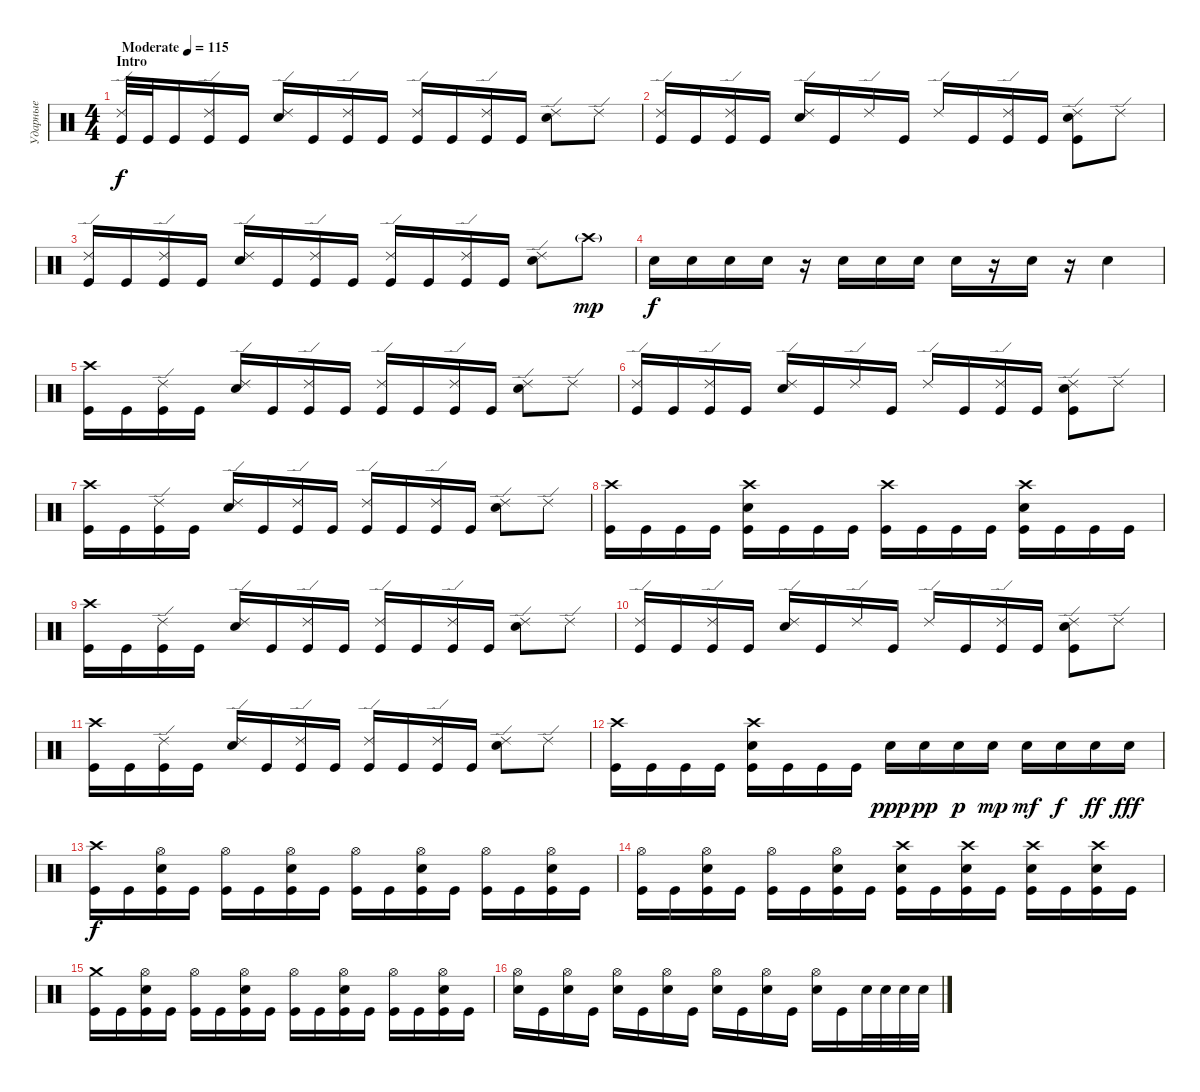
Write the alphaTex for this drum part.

\track ("Ударные" "Ударные") {instrument percussion}
\staff {score}
\articulation defaults
\ts (4 4)
\section ("" "Intro ")
\tempo (115 "Moderate")
\clef neutral
\ks c
("Ride (edge) 2" "Kick (hit)").32{dy f} "Kick (hit)".32 "Kick (hit)".16 ("Ride (edge) 2" "Kick (hit)").16 "Kick (hit)".16 ("Ride (edge) 2" "Snare (hit) 2").16 "Kick (hit)".16 ("Ride (edge) 2" "Kick (hit)").16 "Kick (hit)".16 ("Ride (edge) 2" "Kick (hit)").16 "Kick (hit)".16 ("Ride (edge) 2" "Kick (hit)").16 "Kick (hit)".16 ("Ride (edge) 2" "Snare (hit) 2").8 "Ride (edge) 2".8 |
("Ride (edge) 2" "Kick (hit)").16 "Kick (hit)".16 ("Ride (edge) 2" "Kick (hit)").16 "Kick (hit)".16 ("Ride (edge) 2" "Snare (hit) 2").16 "Kick (hit)".16 "Ride (edge) 2".16 "Kick (hit)".16 "Ride (edge) 2".16 "Kick (hit)".16 ("Ride (edge) 2" "Kick (hit)").16 "Kick (hit)".16 ("Ride (edge) 2" "Snare (hit) 2" "Kick (hit)").8 "Ride (edge) 2".8 |
("Ride (edge) 2" "Kick (hit)").16 "Kick (hit)".16 ("Ride (edge) 2" "Kick (hit)").16 "Kick (hit)".16 ("Ride (edge) 2" "Snare (hit) 2").16 "Kick (hit)".16 ("Ride (edge) 2" "Kick (hit)").16 "Kick (hit)".16 ("Ride (edge) 2" "Kick (hit)").16 "Kick (hit)".16 ("Ride (edge) 2" "Kick (hit)").16 "Kick (hit)".16 ("Ride (edge) 2" "Snare (hit) 2").8 "Crash high (hit)"{g}.8{dy mp} |
"Snare (hit) 2".16{dy f} "Snare (hit) 2".16 "Snare (hit) 2".16 "Snare (hit) 2".16 r.16 "Snare (hit) 2".16 "Snare (hit) 2".16 "Snare (hit) 2".16 "Snare (hit) 2".16 r.16 "Snare (hit) 2".16 r.16 "Snare (hit) 2".4 |
("Crash high (hit)" "Kick (hit)").16 "Kick (hit)".16 ("Ride (edge) 2" "Kick (hit)").16 "Kick (hit)".16 ("Ride (edge) 2" "Snare (hit) 2").16 "Kick (hit)".16 ("Ride (edge) 2" "Kick (hit)").16 "Kick (hit)".16 ("Ride (edge) 2" "Kick (hit)").16 "Kick (hit)".16 ("Ride (edge) 2" "Kick (hit)").16 "Kick (hit)".16 ("Ride (edge) 2" "Snare (hit) 2").8 "Ride (edge) 2".8 |
("Ride (edge) 2" "Kick (hit)").16 "Kick (hit)".16 ("Ride (edge) 2" "Kick (hit)").16 "Kick (hit)".16 ("Ride (edge) 2" "Snare (hit) 2").16 "Kick (hit)".16 "Ride (edge) 2".16 "Kick (hit)".16 "Ride (edge) 2".16 "Kick (hit)".16 ("Ride (edge) 2" "Kick (hit)").16 "Kick (hit)".16 ("Ride (edge) 2" "Snare (hit) 2" "Kick (hit)").8 "Ride (edge) 2".8 |
("Crash high (hit)" "Kick (hit)").16 "Kick (hit)".16 ("Ride (edge) 2" "Kick (hit)").16 "Kick (hit)".16 ("Ride (edge) 2" "Snare (hit) 2").16 "Kick (hit)".16 ("Ride (edge) 2" "Kick (hit)").16 "Kick (hit)".16 ("Ride (edge) 2" "Kick (hit)").16 "Kick (hit)".16 ("Ride (edge) 2" "Kick (hit)").16 "Kick (hit)".16 ("Ride (edge) 2" "Snare (hit) 2").8 "Ride (edge) 2".8 |
("Crash high (hit)" "Kick (hit)").16 "Kick (hit)".16 "Kick (hit)".16 "Kick (hit)".16 ("Crash high (hit)" "Snare (hit) 2" "Kick (hit)").16 "Kick (hit)".16 "Kick (hit)".16 "Kick (hit)".16 ("Crash high (hit)" "Kick (hit)").16 "Kick (hit)".16 "Kick (hit)".16 "Kick (hit)".16 ("Crash high (hit)" "Snare (hit) 2" "Kick (hit)").16 "Kick (hit)".16 "Kick (hit)".16 "Kick (hit)".16 |
("Crash high (hit)" "Kick (hit)").16 "Kick (hit)".16 ("Ride (edge) 2" "Kick (hit)").16 "Kick (hit)".16 ("Ride (edge) 2" "Snare (hit) 2").16 "Kick (hit)".16 ("Ride (edge) 2" "Kick (hit)").16 "Kick (hit)".16 ("Ride (edge) 2" "Kick (hit)").16 "Kick (hit)".16 ("Ride (edge) 2" "Kick (hit)").16 "Kick (hit)".16 ("Ride (edge) 2" "Snare (hit) 2").8 "Ride (edge) 2".8 |
("Ride (edge) 2" "Kick (hit)").16 "Kick (hit)".16 ("Ride (edge) 2" "Kick (hit)").16 "Kick (hit)".16 ("Ride (edge) 2" "Snare (hit) 2").16 "Kick (hit)".16 "Ride (edge) 2".16 "Kick (hit)".16 "Ride (edge) 2".16 "Kick (hit)".16 ("Ride (edge) 2" "Kick (hit)").16 "Kick (hit)".16 ("Ride (edge) 2" "Snare (hit) 2" "Kick (hit)").8 "Ride (edge) 2".8 |
("Crash high (hit)" "Kick (hit)").16 "Kick (hit)".16 ("Ride (edge) 2" "Kick (hit)").16 "Kick (hit)".16 ("Ride (edge) 2" "Snare (hit) 2").16 "Kick (hit)".16 ("Ride (edge) 2" "Kick (hit)").16 "Kick (hit)".16 ("Ride (edge) 2" "Kick (hit)").16 "Kick (hit)".16 ("Ride (edge) 2" "Kick (hit)").16 "Kick (hit)".16 ("Ride (edge) 2" "Snare (hit) 2").8 "Ride (edge) 2".8 |
("Crash high (hit)" "Kick (hit)").16 "Kick (hit)".16 "Kick (hit)".16 "Kick (hit)".16 ("Crash high (hit)" "Snare (hit) 2" "Kick (hit)").16 "Kick (hit)".16 "Kick (hit)".16 "Kick (hit)".16 "Snare (hit) 2".16{dy ppp} "Snare (hit) 2".16{dy pp} "Snare (hit) 2".16{dy p} "Snare (hit) 2".16{dy mp} "Snare (hit) 2".16{dy mf} "Snare (hit) 2".16{dy f} "Snare (hit) 2".16{dy ff} "Snare (hit) 2".16{dy fff} |
("Crash high (hit)" "Kick (hit)").16{dy f} "Kick (hit)".16 ("Hi-Hat (open)" "Snare (hit) 2" "Kick (hit)").16 "Kick (hit)".16 ("Hi-Hat (open)" "Kick (hit)").16 "Kick (hit)".16 ("Hi-Hat (open)" "Snare (hit) 2" "Kick (hit)").16 "Kick (hit)".16 ("Hi-Hat (open)" "Kick (hit)").16 "Kick (hit)".16 ("Hi-Hat (open)" "Snare (hit) 2" "Kick (hit)").16 "Kick (hit)".16 ("Hi-Hat (open)" "Kick (hit)").16 "Kick (hit)".16 ("Hi-Hat (open)" "Snare (hit) 2" "Kick (hit)").16 "Kick (hit)".16 |
("Hi-Hat (open)" "Kick (hit)").16 "Kick (hit)".16 ("Hi-Hat (open)" "Snare (hit) 2" "Kick (hit)").16 "Kick (hit)".16 ("Hi-Hat (open)" "Kick (hit)").16 "Kick (hit)".16 ("Hi-Hat (open)" "Snare (hit) 2" "Kick (hit)").16 "Kick (hit)".16 ("Crash high (hit)" "Snare (hit) 2" "Kick (hit)").16 "Kick (hit)".16 ("Crash high (hit)" "Snare (hit) 2" "Kick (hit)").16 "Kick (hit)".16 ("Crash high (hit)" "Snare (hit) 2" "Kick (hit)").16 "Kick (hit)".16 ("Crash high (hit)" "Snare (hit) 2" "Kick (hit)").16 "Kick (hit)".16 |
("Crash medium (hit)" "Kick (hit)").16 "Kick (hit)".16 ("Hi-Hat (open)" "Snare (hit) 2" "Kick (hit)").16 "Kick (hit)".16 ("Hi-Hat (open)" "Kick (hit)").16 "Kick (hit)".16 ("Hi-Hat (open)" "Snare (hit) 2" "Kick (hit)").16 "Kick (hit)".16 ("Hi-Hat (open)" "Kick (hit)").16 "Kick (hit)".16 ("Hi-Hat (open)" "Snare (hit) 2" "Kick (hit)").16 "Kick (hit)".16 ("Hi-Hat (open)" "Kick (hit)").16 "Kick (hit)".16 ("Hi-Hat (open)" "Snare (hit) 2" "Kick (hit)").16 "Kick (hit)".16 |
("Hi-Hat (open)" "Snare (hit) 2").16 "Kick (hit)".16 ("Hi-Hat (open)" "Snare (hit) 2").16 "Kick (hit)".16 ("Hi-Hat (open)" "Snare (hit) 2").16 "Kick (hit)".16 ("Hi-Hat (open)" "Snare (hit) 2").16 "Kick (hit)".16 ("Hi-Hat (open)" "Snare (hit) 2").16 "Kick (hit)".16 ("Hi-Hat (open)" "Snare (hit) 2").16 "Kick (hit)".16 ("Hi-Hat (open)" "Snare (hit) 2").16 "Kick (hit)".16 "Snare (hit) 2".32 "Snare (hit) 2".32 "Snare (hit) 2".32 "Snare (hit) 2".32
